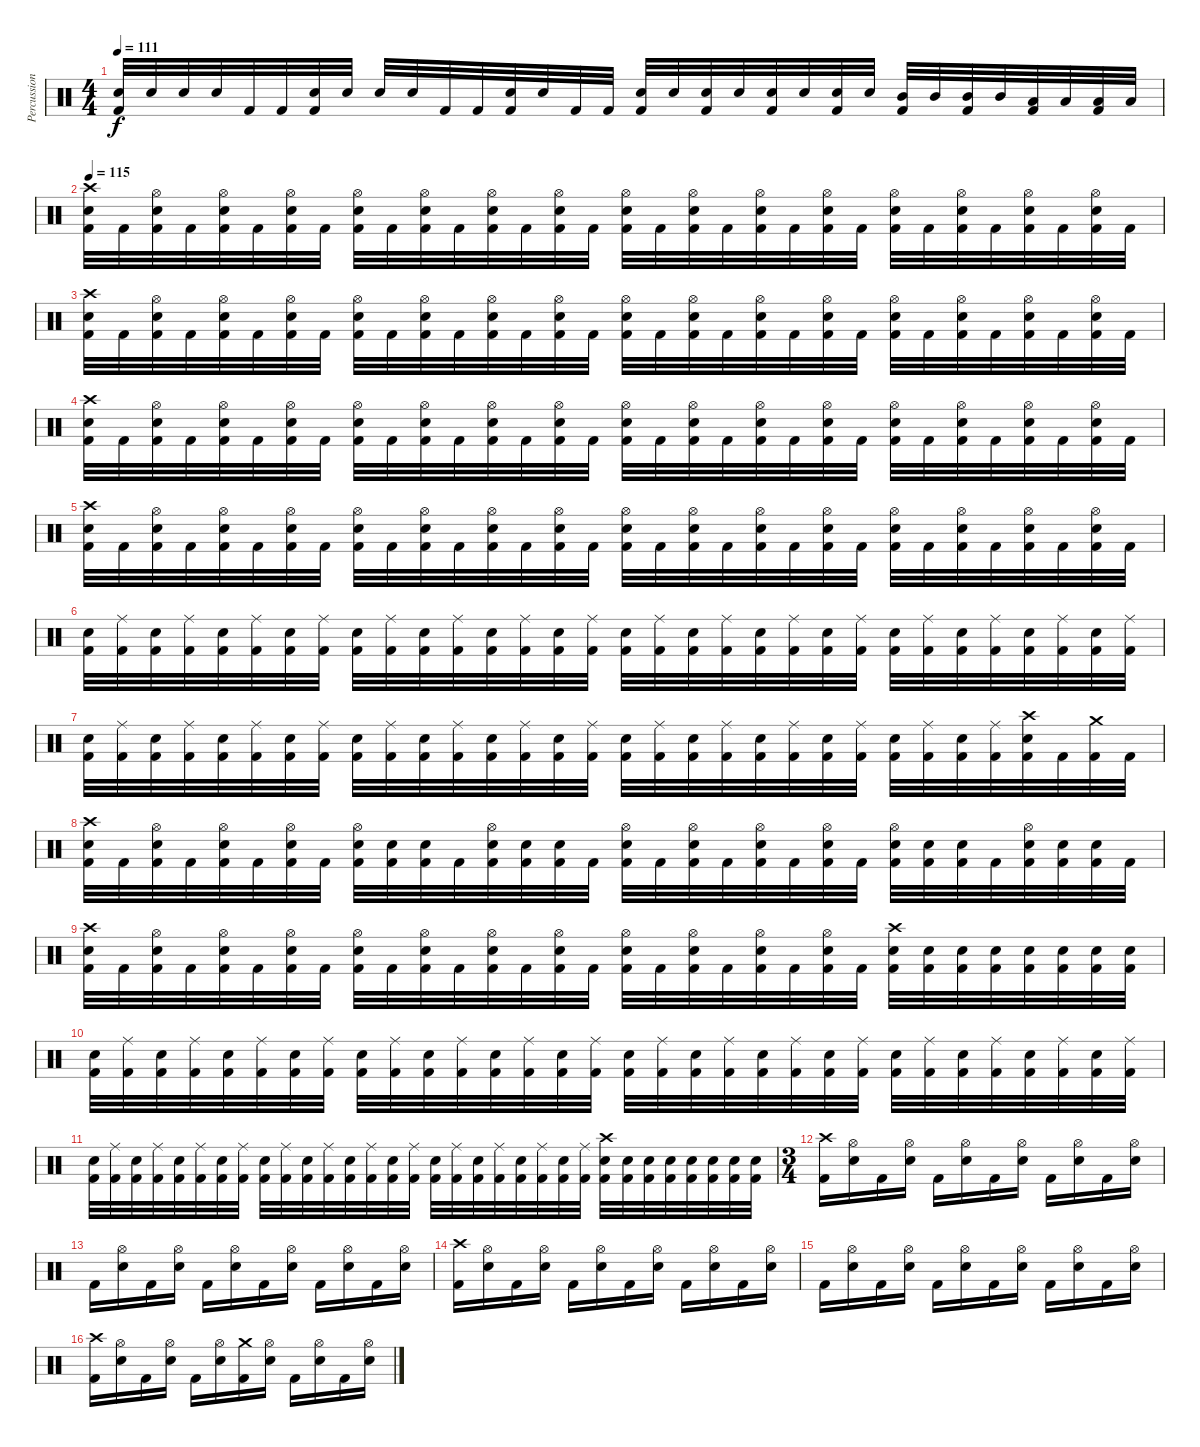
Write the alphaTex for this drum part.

\track ("Percussion" "Percussion") {instrument percussion}
\staff {score}
\articulation defaults
\ts (4 4)
\tempo 111
\clef neutral
\ks c
("Electric Snare (hit)" "Kick (hit) 2").32{dy f} "Electric Snare (hit)".32 "Electric Snare (hit)".32 "Electric Snare (hit)".32 "Kick (hit) 2".32 "Kick (hit) 2".32 ("Electric Snare (hit)" "Kick (hit) 2").32 "Electric Snare (hit)".32 "Electric Snare (hit)".32 "Electric Snare (hit)".32 "Kick (hit) 2".32 "Kick (hit) 2".32 ("Electric Snare (hit)" "Kick (hit) 2").32 "Electric Snare (hit)".32 "Kick (hit) 2".32 "Kick (hit) 2".32 ("Electric Snare (hit)" "Kick (hit) 2").32 "Electric Snare (hit)".32 ("Electric Snare (hit)" "Kick (hit) 2").32 "Electric Snare (hit)".32 ("Electric Snare (hit)" "Kick (hit) 2").32 "Electric Snare (hit)".32 ("Electric Snare (hit)" "Kick (hit) 2").32 "Electric Snare (hit)".32 ("Mid Tom (hit)" "Kick (hit) 2").32 "Mid Tom (hit)".32 ("Mid Tom (hit)" "Kick (hit) 2").32 "Mid Tom (hit)".32 ("Low Tom (hit)" "Kick (hit) 2").32 "Low Tom (hit)".32 ("Low Tom (hit)" "Kick (hit) 2").32 "Low Tom (hit)".32 |
\tempo 115
("Crash high (hit)" "Electric Snare (hit)" "Kick (hit) 2").32 "Kick (hit) 2".32 ("Hi-Hat (open)" "Electric Snare (hit)" "Kick (hit) 2").32 "Kick (hit) 2".32 ("Hi-Hat (open)" "Electric Snare (hit)" "Kick (hit) 2").32 "Kick (hit) 2".32 ("Hi-Hat (open)" "Electric Snare (hit)" "Kick (hit) 2").32 "Kick (hit) 2".32 ("Hi-Hat (open)" "Electric Snare (hit)" "Kick (hit) 2").32 "Kick (hit) 2".32 ("Hi-Hat (open)" "Electric Snare (hit)" "Kick (hit) 2").32 "Kick (hit) 2".32 ("Hi-Hat (open)" "Electric Snare (hit)" "Kick (hit) 2").32 "Kick (hit) 2".32 ("Hi-Hat (open)" "Electric Snare (hit)" "Kick (hit) 2").32 "Kick (hit) 2".32 ("Hi-Hat (open)" "Electric Snare (hit)" "Kick (hit) 2").32 "Kick (hit) 2".32 ("Hi-Hat (open)" "Electric Snare (hit)" "Kick (hit) 2").32 "Kick (hit) 2".32 ("Hi-Hat (open)" "Electric Snare (hit)" "Kick (hit) 2").32 "Kick (hit) 2".32 ("Hi-Hat (open)" "Electric Snare (hit)" "Kick (hit) 2").32 "Kick (hit) 2".32 ("Hi-Hat (open)" "Electric Snare (hit)" "Kick (hit) 2").32 "Kick (hit) 2".32 ("Hi-Hat (open)" "Electric Snare (hit)" "Kick (hit) 2").32 "Kick (hit) 2".32 ("Hi-Hat (open)" "Electric Snare (hit)" "Kick (hit) 2").32 "Kick (hit) 2".32 ("Hi-Hat (open)" "Electric Snare (hit)" "Kick (hit) 2").32 "Kick (hit) 2".32 |
("Crash high (hit)" "Electric Snare (hit)" "Kick (hit) 2").32 "Kick (hit) 2".32 ("Hi-Hat (open)" "Electric Snare (hit)" "Kick (hit) 2").32 "Kick (hit) 2".32 ("Hi-Hat (open)" "Electric Snare (hit)" "Kick (hit) 2").32 "Kick (hit) 2".32 ("Hi-Hat (open)" "Electric Snare (hit)" "Kick (hit) 2").32 "Kick (hit) 2".32 ("Hi-Hat (open)" "Electric Snare (hit)" "Kick (hit) 2").32 "Kick (hit) 2".32 ("Hi-Hat (open)" "Electric Snare (hit)" "Kick (hit) 2").32 "Kick (hit) 2".32 ("Hi-Hat (open)" "Electric Snare (hit)" "Kick (hit) 2").32 "Kick (hit) 2".32 ("Hi-Hat (open)" "Electric Snare (hit)" "Kick (hit) 2").32 "Kick (hit) 2".32 ("Hi-Hat (open)" "Electric Snare (hit)" "Kick (hit) 2").32 "Kick (hit) 2".32 ("Hi-Hat (open)" "Electric Snare (hit)" "Kick (hit) 2").32 "Kick (hit) 2".32 ("Hi-Hat (open)" "Electric Snare (hit)" "Kick (hit) 2").32 "Kick (hit) 2".32 ("Hi-Hat (open)" "Electric Snare (hit)" "Kick (hit) 2").32 "Kick (hit) 2".32 ("Hi-Hat (open)" "Electric Snare (hit)" "Kick (hit) 2").32 "Kick (hit) 2".32 ("Hi-Hat (open)" "Electric Snare (hit)" "Kick (hit) 2").32 "Kick (hit) 2".32 ("Hi-Hat (open)" "Electric Snare (hit)" "Kick (hit) 2").32 "Kick (hit) 2".32 ("Hi-Hat (open)" "Electric Snare (hit)" "Kick (hit) 2").32 "Kick (hit) 2".32 |
("Crash high (hit)" "Electric Snare (hit)" "Kick (hit) 2").32 "Kick (hit) 2".32 ("Hi-Hat (open)" "Electric Snare (hit)" "Kick (hit) 2").32 "Kick (hit) 2".32 ("Hi-Hat (open)" "Electric Snare (hit)" "Kick (hit) 2").32 "Kick (hit) 2".32 ("Hi-Hat (open)" "Electric Snare (hit)" "Kick (hit) 2").32 "Kick (hit) 2".32 ("Hi-Hat (open)" "Electric Snare (hit)" "Kick (hit) 2").32 "Kick (hit) 2".32 ("Hi-Hat (open)" "Electric Snare (hit)" "Kick (hit) 2").32 "Kick (hit) 2".32 ("Hi-Hat (open)" "Electric Snare (hit)" "Kick (hit) 2").32 "Kick (hit) 2".32 ("Hi-Hat (open)" "Electric Snare (hit)" "Kick (hit) 2").32 "Kick (hit) 2".32 ("Hi-Hat (open)" "Electric Snare (hit)" "Kick (hit) 2").32 "Kick (hit) 2".32 ("Hi-Hat (open)" "Electric Snare (hit)" "Kick (hit) 2").32 "Kick (hit) 2".32 ("Hi-Hat (open)" "Electric Snare (hit)" "Kick (hit) 2").32 "Kick (hit) 2".32 ("Hi-Hat (open)" "Electric Snare (hit)" "Kick (hit) 2").32 "Kick (hit) 2".32 ("Hi-Hat (open)" "Electric Snare (hit)" "Kick (hit) 2").32 "Kick (hit) 2".32 ("Hi-Hat (open)" "Electric Snare (hit)" "Kick (hit) 2").32 "Kick (hit) 2".32 ("Hi-Hat (open)" "Electric Snare (hit)" "Kick (hit) 2").32 "Kick (hit) 2".32 ("Hi-Hat (open)" "Electric Snare (hit)" "Kick (hit) 2").32 "Kick (hit) 2".32 |
("Crash high (hit)" "Electric Snare (hit)" "Kick (hit) 2").32 "Kick (hit) 2".32 ("Hi-Hat (open)" "Electric Snare (hit)" "Kick (hit) 2").32 "Kick (hit) 2".32 ("Hi-Hat (open)" "Electric Snare (hit)" "Kick (hit) 2").32 "Kick (hit) 2".32 ("Hi-Hat (open)" "Electric Snare (hit)" "Kick (hit) 2").32 "Kick (hit) 2".32 ("Hi-Hat (open)" "Electric Snare (hit)" "Kick (hit) 2").32 "Kick (hit) 2".32 ("Hi-Hat (open)" "Electric Snare (hit)" "Kick (hit) 2").32 "Kick (hit) 2".32 ("Hi-Hat (open)" "Electric Snare (hit)" "Kick (hit) 2").32 "Kick (hit) 2".32 ("Hi-Hat (open)" "Electric Snare (hit)" "Kick (hit) 2").32 "Kick (hit) 2".32 ("Hi-Hat (open)" "Electric Snare (hit)" "Kick (hit) 2").32 "Kick (hit) 2".32 ("Hi-Hat (open)" "Electric Snare (hit)" "Kick (hit) 2").32 "Kick (hit) 2".32 ("Hi-Hat (open)" "Electric Snare (hit)" "Kick (hit) 2").32 "Kick (hit) 2".32 ("Hi-Hat (open)" "Electric Snare (hit)" "Kick (hit) 2").32 "Kick (hit) 2".32 ("Hi-Hat (open)" "Electric Snare (hit)" "Kick (hit) 2").32 "Kick (hit) 2".32 ("Hi-Hat (open)" "Electric Snare (hit)" "Kick (hit) 2").32 "Kick (hit) 2".32 ("Hi-Hat (open)" "Electric Snare (hit)" "Kick (hit) 2").32 "Kick (hit) 2".32 ("Hi-Hat (open)" "Electric Snare (hit)" "Kick (hit) 2").32 "Kick (hit) 2".32 |
("Electric Snare (hit)" "Kick (hit) 2").32 ("Ride (middle)" "Kick (hit) 2").32 ("Electric Snare (hit)" "Kick (hit) 2").32 ("Ride (middle)" "Kick (hit) 2").32 ("Electric Snare (hit)" "Kick (hit) 2").32 ("Ride (middle)" "Kick (hit) 2").32 ("Electric Snare (hit)" "Kick (hit) 2").32 ("Ride (middle)" "Kick (hit) 2").32 ("Electric Snare (hit)" "Kick (hit) 2").32 ("Ride (middle)" "Kick (hit) 2").32 ("Electric Snare (hit)" "Kick (hit) 2").32 ("Ride (middle)" "Kick (hit) 2").32 ("Electric Snare (hit)" "Kick (hit) 2").32 ("Ride (middle)" "Kick (hit) 2").32 ("Electric Snare (hit)" "Kick (hit) 2").32 ("Ride (middle)" "Kick (hit) 2").32 ("Electric Snare (hit)" "Kick (hit) 2").32 ("Ride (middle)" "Kick (hit) 2").32 ("Electric Snare (hit)" "Kick (hit) 2").32 ("Ride (middle)" "Kick (hit) 2").32 ("Electric Snare (hit)" "Kick (hit) 2").32 ("Ride (middle)" "Kick (hit) 2").32 ("Electric Snare (hit)" "Kick (hit) 2").32 ("Ride (middle)" "Kick (hit) 2").32 ("Electric Snare (hit)" "Kick (hit) 2").32 ("Ride (middle)" "Kick (hit) 2").32 ("Electric Snare (hit)" "Kick (hit) 2").32 ("Ride (middle)" "Kick (hit) 2").32 ("Electric Snare (hit)" "Kick (hit) 2").32 ("Ride (middle)" "Kick (hit) 2").32 ("Electric Snare (hit)" "Kick (hit) 2").32 ("Ride (middle)" "Kick (hit) 2").32 |
("Electric Snare (hit)" "Kick (hit) 2").32 ("Ride (middle)" "Kick (hit) 2").32 ("Electric Snare (hit)" "Kick (hit) 2").32 ("Ride (middle)" "Kick (hit) 2").32 ("Electric Snare (hit)" "Kick (hit) 2").32 ("Ride (middle)" "Kick (hit) 2").32 ("Electric Snare (hit)" "Kick (hit) 2").32 ("Ride (middle)" "Kick (hit) 2").32 ("Electric Snare (hit)" "Kick (hit) 2").32 ("Ride (middle)" "Kick (hit) 2").32 ("Electric Snare (hit)" "Kick (hit) 2").32 ("Ride (middle)" "Kick (hit) 2").32 ("Electric Snare (hit)" "Kick (hit) 2").32 ("Ride (middle)" "Kick (hit) 2").32 ("Electric Snare (hit)" "Kick (hit) 2").32 ("Ride (middle)" "Kick (hit) 2").32 ("Electric Snare (hit)" "Kick (hit) 2").32 ("Ride (middle)" "Kick (hit) 2").32 ("Electric Snare (hit)" "Kick (hit) 2").32 ("Ride (middle)" "Kick (hit) 2").32 ("Electric Snare (hit)" "Kick (hit) 2").32 ("Ride (middle)" "Kick (hit) 2").32 ("Electric Snare (hit)" "Kick (hit) 2").32 ("Ride (middle)" "Kick (hit) 2").32 ("Electric Snare (hit)" "Kick (hit) 2").32 ("Ride (middle)" "Kick (hit) 2").32 ("Electric Snare (hit)" "Kick (hit) 2").32 ("Ride (middle)" "Kick (hit) 2").32 ("Crash high (hit)" "Electric Snare (hit)" "Kick (hit) 2").32 "Kick (hit) 2".32 ("Crash medium (hit)" "Kick (hit) 2").32 "Kick (hit) 2".32 |
("Crash high (hit)" "Electric Snare (hit)" "Kick (hit) 2").32 "Kick (hit) 2".32 ("Hi-Hat (open)" "Electric Snare (hit)" "Kick (hit) 2").32 "Kick (hit) 2".32 ("Hi-Hat (open)" "Electric Snare (hit)" "Kick (hit) 2").32 "Kick (hit) 2".32 ("Hi-Hat (open)" "Electric Snare (hit)" "Kick (hit) 2").32 "Kick (hit) 2".32 ("Hi-Hat (open)" "Electric Snare (hit)" "Kick (hit) 2").32 ("Electric Snare (hit)" "Kick (hit) 2").32 ("Electric Snare (hit)" "Kick (hit) 2").32 "Kick (hit) 2".32 ("Hi-Hat (open)" "Electric Snare (hit)" "Kick (hit) 2").32 ("Electric Snare (hit)" "Kick (hit) 2").32 ("Electric Snare (hit)" "Kick (hit) 2").32 "Kick (hit) 2".32 ("Hi-Hat (open)" "Electric Snare (hit)" "Kick (hit) 2").32 "Kick (hit) 2".32 ("Hi-Hat (open)" "Electric Snare (hit)" "Kick (hit) 2").32 "Kick (hit) 2".32 ("Hi-Hat (open)" "Electric Snare (hit)" "Kick (hit) 2").32 "Kick (hit) 2".32 ("Hi-Hat (open)" "Electric Snare (hit)" "Kick (hit) 2").32 "Kick (hit) 2".32 ("Hi-Hat (open)" "Electric Snare (hit)" "Kick (hit) 2").32 ("Electric Snare (hit)" "Kick (hit) 2").32 ("Electric Snare (hit)" "Kick (hit) 2").32 "Kick (hit) 2".32 ("Hi-Hat (open)" "Electric Snare (hit)" "Kick (hit) 2").32 ("Electric Snare (hit)" "Kick (hit) 2").32 ("Electric Snare (hit)" "Kick (hit) 2").32 "Kick (hit) 2".32 |
("Crash high (hit)" "Electric Snare (hit)" "Kick (hit) 2").32 "Kick (hit) 2".32 ("Hi-Hat (open)" "Electric Snare (hit)" "Kick (hit) 2").32 "Kick (hit) 2".32 ("Hi-Hat (open)" "Electric Snare (hit)" "Kick (hit) 2").32 "Kick (hit) 2".32 ("Hi-Hat (open)" "Electric Snare (hit)" "Kick (hit) 2").32 "Kick (hit) 2".32 ("Hi-Hat (open)" "Electric Snare (hit)" "Kick (hit) 2").32 "Kick (hit) 2".32 ("Hi-Hat (open)" "Electric Snare (hit)" "Kick (hit) 2").32 "Kick (hit) 2".32 ("Hi-Hat (open)" "Electric Snare (hit)" "Kick (hit) 2").32 "Kick (hit) 2".32 ("Hi-Hat (open)" "Electric Snare (hit)" "Kick (hit) 2").32 "Kick (hit) 2".32 ("Hi-Hat (open)" "Electric Snare (hit)" "Kick (hit) 2").32 "Kick (hit) 2".32 ("Hi-Hat (open)" "Electric Snare (hit)" "Kick (hit) 2").32 "Kick (hit) 2".32 ("Hi-Hat (open)" "Electric Snare (hit)" "Kick (hit) 2").32 "Kick (hit) 2".32 ("Hi-Hat (open)" "Electric Snare (hit)" "Kick (hit) 2").32 "Kick (hit) 2".32 ("Crash high (hit)" "Electric Snare (hit)" "Kick (hit) 2").32 ("Electric Snare (hit)" "Kick (hit) 2").32 ("Electric Snare (hit)" "Kick (hit) 2").32 ("Electric Snare (hit)" "Kick (hit) 2").32 ("Electric Snare (hit)" "Kick (hit) 2").32 ("Electric Snare (hit)" "Kick (hit) 2").32 ("Electric Snare (hit)" "Kick (hit) 2").32 ("Electric Snare (hit)" "Kick (hit) 2").32 |
("Electric Snare (hit)" "Kick (hit) 2").32 ("Ride (middle)" "Kick (hit) 2").32 ("Electric Snare (hit)" "Kick (hit) 2").32 ("Ride (middle)" "Kick (hit) 2").32 ("Electric Snare (hit)" "Kick (hit) 2").32 ("Ride (middle)" "Kick (hit) 2").32 ("Electric Snare (hit)" "Kick (hit) 2").32 ("Ride (middle)" "Kick (hit) 2").32 ("Electric Snare (hit)" "Kick (hit) 2").32 ("Ride (middle)" "Kick (hit) 2").32 ("Electric Snare (hit)" "Kick (hit) 2").32 ("Ride (middle)" "Kick (hit) 2").32 ("Electric Snare (hit)" "Kick (hit) 2").32 ("Ride (middle)" "Kick (hit) 2").32 ("Electric Snare (hit)" "Kick (hit) 2").32 ("Ride (middle)" "Kick (hit) 2").32 ("Electric Snare (hit)" "Kick (hit) 2").32 ("Ride (middle)" "Kick (hit) 2").32 ("Electric Snare (hit)" "Kick (hit) 2").32 ("Ride (middle)" "Kick (hit) 2").32 ("Electric Snare (hit)" "Kick (hit) 2").32 ("Ride (middle)" "Kick (hit) 2").32 ("Electric Snare (hit)" "Kick (hit) 2").32 ("Ride (middle)" "Kick (hit) 2").32 ("Electric Snare (hit)" "Kick (hit) 2").32 ("Ride (middle)" "Kick (hit) 2").32 ("Electric Snare (hit)" "Kick (hit) 2").32 ("Ride (middle)" "Kick (hit) 2").32 ("Electric Snare (hit)" "Kick (hit) 2").32 ("Ride (middle)" "Kick (hit) 2").32 ("Electric Snare (hit)" "Kick (hit) 2").32 ("Ride (middle)" "Kick (hit) 2").32 |
("Electric Snare (hit)" "Kick (hit) 2").32 ("Ride (middle)" "Kick (hit) 2").32 ("Electric Snare (hit)" "Kick (hit) 2").32 ("Ride (middle)" "Kick (hit) 2").32 ("Electric Snare (hit)" "Kick (hit) 2").32 ("Ride (middle)" "Kick (hit) 2").32 ("Electric Snare (hit)" "Kick (hit) 2").32 ("Ride (middle)" "Kick (hit) 2").32 ("Electric Snare (hit)" "Kick (hit) 2").32 ("Ride (middle)" "Kick (hit) 2").32 ("Electric Snare (hit)" "Kick (hit) 2").32 ("Ride (middle)" "Kick (hit) 2").32 ("Electric Snare (hit)" "Kick (hit) 2").32 ("Ride (middle)" "Kick (hit) 2").32 ("Electric Snare (hit)" "Kick (hit) 2").32 ("Ride (middle)" "Kick (hit) 2").32 ("Electric Snare (hit)" "Kick (hit) 2").32 ("Ride (middle)" "Kick (hit) 2").32 ("Electric Snare (hit)" "Kick (hit) 2").32 ("Ride (middle)" "Kick (hit) 2").32 ("Electric Snare (hit)" "Kick (hit) 2").32 ("Ride (middle)" "Kick (hit) 2").32 ("Electric Snare (hit)" "Kick (hit) 2").32 ("Ride (middle)" "Kick (hit) 2").32 ("Crash high (hit)" "Electric Snare (hit)" "Kick (hit) 2").32 ("Electric Snare (hit)" "Kick (hit) 2").32 ("Electric Snare (hit)" "Kick (hit) 2").32 ("Electric Snare (hit)" "Kick (hit) 2").32 ("Electric Snare (hit)" "Kick (hit) 2").32 ("Electric Snare (hit)" "Kick (hit) 2").32 ("Electric Snare (hit)" "Kick (hit) 2").32 ("Electric Snare (hit)" "Kick (hit) 2").32 |
\ts (3 4)
("Crash high (hit)" "Kick (hit) 2").16 ("Hi-Hat (open)" "Electric Snare (hit)").16 "Kick (hit) 2".16 ("Hi-Hat (open)" "Electric Snare (hit)").16 "Kick (hit) 2".16 ("Hi-Hat (open)" "Electric Snare (hit)").16 "Kick (hit) 2".16 ("Hi-Hat (open)" "Electric Snare (hit)").16 "Kick (hit) 2".16 ("Hi-Hat (open)" "Electric Snare (hit)").16 "Kick (hit) 2".16 ("Hi-Hat (open)" "Electric Snare (hit)").16 |
"Kick (hit) 2".16 ("Hi-Hat (open)" "Electric Snare (hit)").16 "Kick (hit) 2".16 ("Hi-Hat (open)" "Electric Snare (hit)").16 "Kick (hit) 2".16 ("Hi-Hat (open)" "Electric Snare (hit)").16 "Kick (hit) 2".16 ("Hi-Hat (open)" "Electric Snare (hit)").16 "Kick (hit) 2".16 ("Hi-Hat (open)" "Electric Snare (hit)").16 "Kick (hit) 2".16 ("Hi-Hat (open)" "Electric Snare (hit)").16 |
("Crash high (hit)" "Kick (hit) 2").16 ("Hi-Hat (open)" "Electric Snare (hit)").16 "Kick (hit) 2".16 ("Hi-Hat (open)" "Electric Snare (hit)").16 "Kick (hit) 2".16 ("Hi-Hat (open)" "Electric Snare (hit)").16 "Kick (hit) 2".16 ("Hi-Hat (open)" "Electric Snare (hit)").16 "Kick (hit) 2".16 ("Hi-Hat (open)" "Electric Snare (hit)").16 "Kick (hit) 2".16 ("Hi-Hat (open)" "Electric Snare (hit)").16 |
"Kick (hit) 2".16 ("Hi-Hat (open)" "Electric Snare (hit)").16 "Kick (hit) 2".16 ("Hi-Hat (open)" "Electric Snare (hit)").16 "Kick (hit) 2".16 ("Hi-Hat (open)" "Electric Snare (hit)").16 "Kick (hit) 2".16 ("Hi-Hat (open)" "Electric Snare (hit)").16 "Kick (hit) 2".16 ("Hi-Hat (open)" "Electric Snare (hit)").16 "Kick (hit) 2".16 ("Hi-Hat (open)" "Electric Snare (hit)").16 |
("Crash high (hit)" "Kick (hit) 2").16 ("Hi-Hat (open)" "Electric Snare (hit)").16 "Kick (hit) 2".16 ("Hi-Hat (open)" "Electric Snare (hit)").16 "Kick (hit) 2".16 ("Hi-Hat (open)" "Electric Snare (hit)").16 ("Crash medium (hit)" "Kick (hit) 2").16 ("Hi-Hat (open)" "Electric Snare (hit)").16 "Kick (hit) 2".16 ("Hi-Hat (open)" "Electric Snare (hit)").16 "Kick (hit) 2".16 ("Hi-Hat (open)" "Electric Snare (hit)").16
